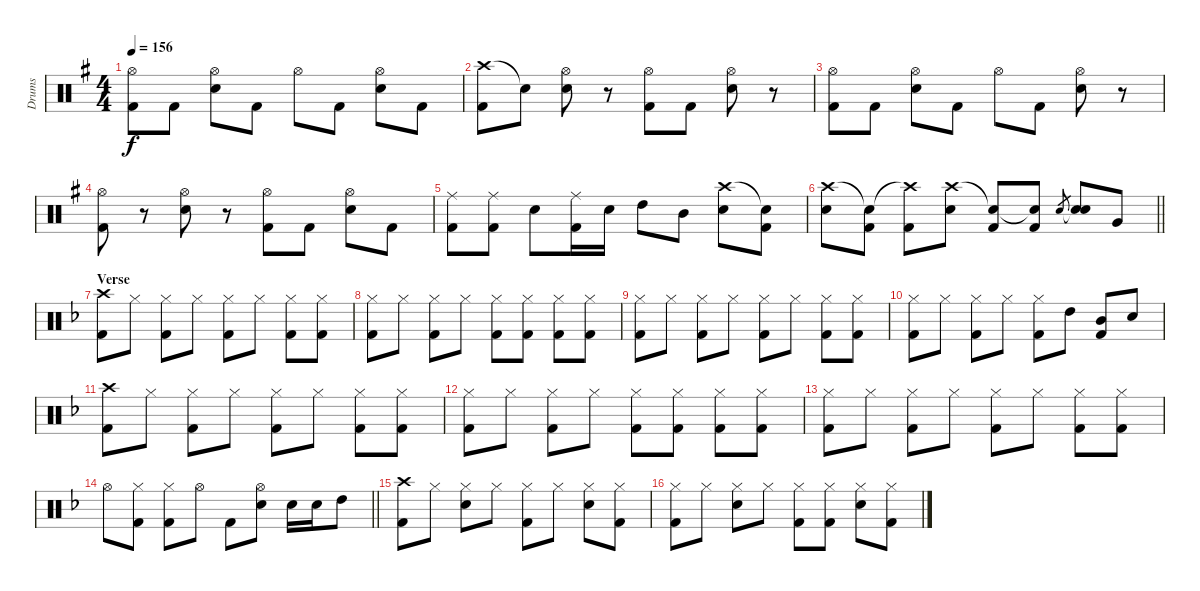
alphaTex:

\track ("Drums" "Drums") {instrument percussion}
\staff {score}
\articulation defaults
\ts (4 4)
\tempo 156
\clef neutral
\ks g
("Hi-Hat (open)" "Kick (hit) 2").8{dy f} "Kick (hit) 2".8 ("Hi-Hat (open)" "Snare (hit) 2").8 "Kick (hit) 2".8 "Hi-Hat (open)".8 "Kick (hit) 2".8 ("Hi-Hat (open)" "Snare (hit) 2").8 "Kick (hit) 2".8 |
("Crash high (hit)" "Kick (hit) 2").8 "Snare (hit)"{t}.8 ("Hi-Hat (open)" "Snare (hit) 2").8 r.8 ("Hi-Hat (open)" "Kick (hit) 2").8 "Kick (hit) 2".8 ("Hi-Hat (open)" "Snare (hit) 2").8 r.8 |
("Hi-Hat (open)" "Kick (hit) 2").8 "Kick (hit) 2".8 ("Hi-Hat (open)" "Snare (hit) 2").8 "Kick (hit) 2".8 "Hi-Hat (open)".8 "Kick (hit) 2".8 ("Hi-Hat (open)" "Snare (hit) 2").8 r.8 |
("Hi-Hat (open)" "Kick (hit) 2").8 r.8 ("Hi-Hat (open)" "Snare (hit) 2").8 r.8 ("Hi-Hat (open)" "Kick (hit) 2").8 "Kick (hit) 2".8 ("Hi-Hat (open)" "Snare (hit) 2").8 "Kick (hit) 2".8 |
("Ride (middle)" "Kick (hit) 2").8 ("Ride (middle)" "Kick (hit) 2").8 "Snare (hit) 2".8 ("Ride (middle)" "Kick (hit) 2").16 "Snare (hit) 2".16 "High Tom (hit)".8 "Mid Tom (hit)".8 ("Crash high (hit)" "Snare (hit) 2").8 ("Snare (hit)"{t} "Kick (hit) 2").8 |
\barLineRight lightlight
("Crash high (hit)" "Snare (hit) 2").8 ("Snare (hit)"{t} "Kick (hit) 2").8 ("Crash high (hit)"{t} "Kick (hit) 2").8 ("Crash high (hit)" "Snare (hit) 2").8 ("Snare (hit)"{t} "Kick (hit) 2").8 ("Snare (hit)"{t} "Kick (hit) 2").8 "Snare (hit) 2".8{gr} ("Snare (hit)"{t} "Snare (hit) 2").8 "Very Low Tom (hit)".8 |
\section ("" "Verse")
\ks f
("Crash high (hit)" "Kick (hit) 2").8 "Hi-Hat (closed)".8 ("Hi-Hat (closed)" "Kick (hit) 2").8 "Hi-Hat (closed)".8 ("Hi-Hat (closed)" "Kick (hit) 2").8 "Hi-Hat (closed)".8 ("Hi-Hat (closed)" "Kick (hit) 2").8 ("Hi-Hat (closed)" "Kick (hit) 2").8 |
("Hi-Hat (closed)" "Kick (hit) 2").8 "Hi-Hat (closed)".8 ("Hi-Hat (closed)" "Kick (hit) 2").8 "Hi-Hat (closed)".8 ("Hi-Hat (closed)" "Kick (hit) 2").8 ("Hi-Hat (closed)" "Kick (hit) 2").8 ("Hi-Hat (closed)" "Kick (hit) 2").8 ("Hi-Hat (closed)" "Kick (hit) 2").8 |
("Hi-Hat (closed)" "Kick (hit) 2").8 "Hi-Hat (closed)".8 ("Hi-Hat (closed)" "Kick (hit) 2").8 "Hi-Hat (closed)".8 ("Hi-Hat (closed)" "Kick (hit) 2").8 "Hi-Hat (closed)".8 ("Hi-Hat (closed)" "Kick (hit) 2").8 ("Hi-Hat (closed)" "Kick (hit) 2").8 |
("Hi-Hat (closed)" "Kick (hit) 2").8 "Hi-Hat (closed)".8 ("Hi-Hat (closed)" "Kick (hit) 2").8 "Hi-Hat (closed)".8 ("Hi-Hat (closed)" "Kick (hit) 2").8 "High Tom (hit)".8 ("Mid Tom (hit)" "Kick (hit) 2").8 "Snare (hit) 2".8 |
("Crash high (hit)" "Kick (hit) 2").8 "Hi-Hat (closed)".8 ("Hi-Hat (closed)" "Kick (hit) 2").8 "Hi-Hat (closed)".8 ("Hi-Hat (closed)" "Kick (hit) 2").8 "Hi-Hat (closed)".8 ("Hi-Hat (closed)" "Kick (hit) 2").8 ("Hi-Hat (closed)" "Kick (hit) 2").8 |
("Hi-Hat (closed)" "Kick (hit) 2").8 "Hi-Hat (closed)".8 ("Hi-Hat (closed)" "Kick (hit) 2").8 "Hi-Hat (closed)".8 ("Hi-Hat (closed)" "Kick (hit) 2").8 ("Hi-Hat (closed)" "Kick (hit) 2").8 ("Hi-Hat (closed)" "Kick (hit) 2").8 ("Hi-Hat (closed)" "Kick (hit) 2").8 |
("Hi-Hat (closed)" "Kick (hit) 2").8 "Hi-Hat (closed)".8 ("Hi-Hat (closed)" "Kick (hit) 2").8 "Hi-Hat (closed)".8 ("Hi-Hat (closed)" "Kick (hit) 2").8 "Hi-Hat (closed)".8 ("Hi-Hat (closed)" "Kick (hit) 2").8 ("Hi-Hat (closed)" "Kick (hit) 2").8 |
\barLineRight lightlight "Hi-Hat (open)".8
("Hi-Hat (closed)" "Kick (hit) 2").8 ("Hi-Hat (closed)" "Kick (hit) 2").8 "Hi-Hat (open)".8 "Kick (hit) 2".8 ("Hi-Hat (open)" "Snare (hit) 2").8 "Snare (hit) 2".16 "Snare (hit) 2".16 "High Tom (hit)".8 |
("Crash high (hit)" "Kick (hit) 2").8 "Hi-Hat (closed)".8 ("Hi-Hat (closed)" "Snare (hit) 2").8 "Hi-Hat (closed)".8 ("Hi-Hat (closed)" "Kick (hit) 2").8 "Hi-Hat (closed)".8 ("Hi-Hat (closed)" "Snare (hit) 2").8 ("Hi-Hat (closed)" "Kick (hit) 2").8 |
("Hi-Hat (closed)" "Kick (hit) 2").8 "Hi-Hat (closed)".8 ("Hi-Hat (closed)" "Snare (hit) 2").8 "Hi-Hat (closed)".8 ("Hi-Hat (closed)" "Kick (hit) 2").8 ("Hi-Hat (closed)" "Kick (hit) 2").8 ("Hi-Hat (closed)" "Snare (hit) 2").8 ("Hi-Hat (closed)" "Kick (hit) 2").8
